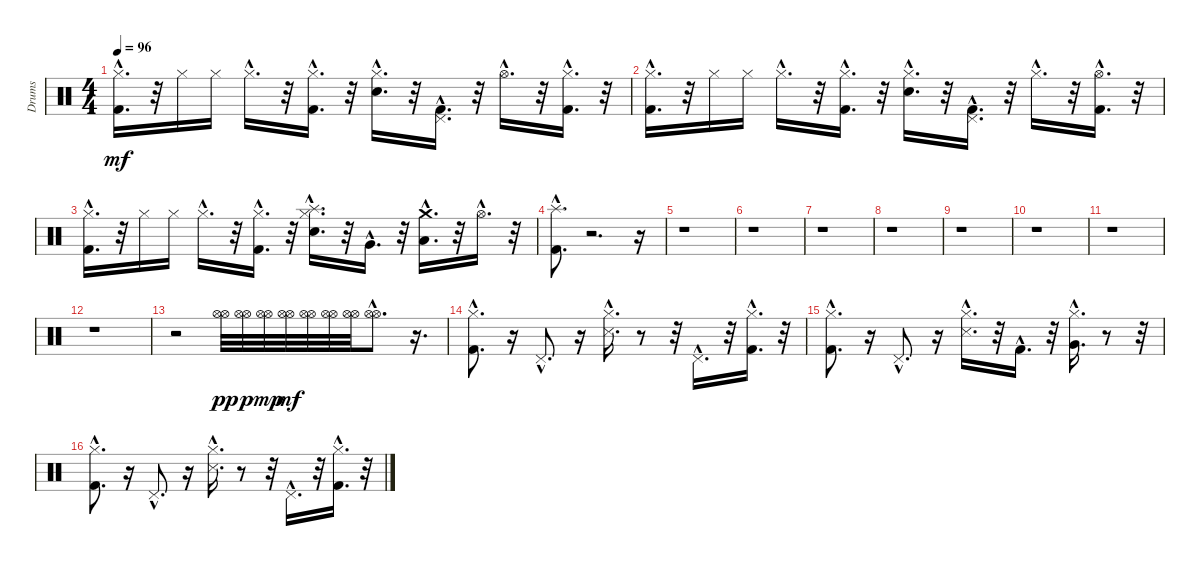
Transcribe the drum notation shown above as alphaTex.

\track ("Drums" "Drums") {instrument percussion}
\staff {score}
\articulation defaults
\ts (4 4)
\tempo 96
\clef neutral
\ks c
("Kick (hit) 2"{hac} "Hi-Hat (closed)"{hac}).16{d dy mf} r.32 "Hi-Hat (closed)".16 "Hi-Hat (closed)".16 "Hi-Hat (closed)"{hac}.16{d} r.32 ("Hi-Hat (closed)"{hac} "Kick (hit) 2"{hac}).16{d} r.32 ("Hi-Hat (closed)"{hac} "Snare (hit) 2"{hac}).16{d} r.32 ("Kick (hit) 2"{hac} "Pedal Hi-Hat (hit)"{hac}).16{d} r.32 "Hi-Hat (open)"{hac}.16{d} r.32 ("Hi-Hat (closed)"{hac} "Kick (hit) 2"{hac}).16{d} r.32 |
("Hi-Hat (closed)"{hac} "Kick (hit) 2"{hac}).16{d} r.32 "Hi-Hat (closed)".16 "Hi-Hat (closed)".16 "Hi-Hat (closed)"{hac}.16{d} r.32 ("Kick (hit) 2"{hac} "Hi-Hat (closed)"{hac}).16{d} r.32 ("Snare (hit) 2"{hac} "Hi-Hat (closed)"{hac}).16{d} r.32 ("Kick (hit) 2"{hac} "Pedal Hi-Hat (hit)"{hac}).16{d} r.32 "Hi-Hat (closed)"{hac}.16{d} r.32 ("Hi-Hat (open)"{hac} "Kick (hit) 2"{hac}).16{d} r.32 |
("Hi-Hat (closed)"{hac} "Kick (hit) 2"{hac}).16{d} r.32 "Hi-Hat (closed)".16 "Hi-Hat (closed)".16 "Hi-Hat (closed)"{hac}.16{d} r.32 ("Kick (hit) 2"{hac} "Hi-Hat (closed)"{hac}).16{d} r.32 ("Splash (hit)"{hac} "Hi-Hat (closed)"{hac} "Snare (hit) 2"{hac}).16{d} r.32 "Very Low Tom (hit)"{hac}.16{d} r.32 ("Crash medium (hit)"{hac} "Low Floor Tom (hit)"{hac}).16{d} r.32 "Hi-Hat (open)"{hac}.16{d} r.32 |
("Kick (hit) 2"{hac} "Splash (hit)"{hac}).8{d} r.2{d} r.16 |
r.1 |
r.1 |
r.1 |
r.1 |
r.1 |
r.1 |
r.1 |
r.1 |
r.2 ("Hi-Hat (open)" "Hi-Hat (open)").32{dy pp} ("Hi-Hat (open)" "Hi-Hat (open)").32{dy p} ("Hi-Hat (open)" "Hi-Hat (open)").32{dy mp} ("Hi-Hat (open)" "Hi-Hat (open)").32{dy mf} ("Hi-Hat (open)" "Hi-Hat (open)").32 ("Hi-Hat (open)" "Hi-Hat (open)").32 ("Hi-Hat (open)" "Hi-Hat (open)").32 ("Hi-Hat (open)" "Hi-Hat (open)"{hac}).8{d} r.16{d} |
("Kick (hit) 2"{hac} "Hi-Hat (closed)"{hac}).8{d} r.16 "Pedal Hi-Hat (hit)"{hac}.8{d} r.16 ("Snare (side stick) 3"{hac} "Hi-Hat (closed)"{hac}).16{d} r.8 r.32 "Pedal Hi-Hat (hit)"{hac}.16{d} r.32 ("Hi-Hat (closed)"{hac} "Kick (hit) 2"{hac}).16{d} r.32 |
("Kick (hit) 2"{hac} "Hi-Hat (closed)"{hac}).8{d} r.16 "Pedal Hi-Hat (hit)"{hac}.8{d} r.16 ("Snare (side stick) 3"{hac} "Hi-Hat (closed)"{hac}).16{d} r.32 "Kick (hit) 2"{hac}.16{d} r.32 ("Hi-Hat (closed)"{hac} "Very Low Tom (hit)"{hac}).16{d} r.8 r.32 |
("Kick (hit) 2"{hac} "Hi-Hat (closed)"{hac}).8{d} r.16 "Pedal Hi-Hat (hit)"{hac}.8{d} r.16 ("Hi-Hat (closed)"{hac} "Snare (side stick) 3"{hac}).16{d} r.8 r.32 "Pedal Hi-Hat (hit)"{hac}.16{d} r.32 ("Kick (hit) 2"{hac} "Hi-Hat (closed)"{hac}).16{d} r.32
